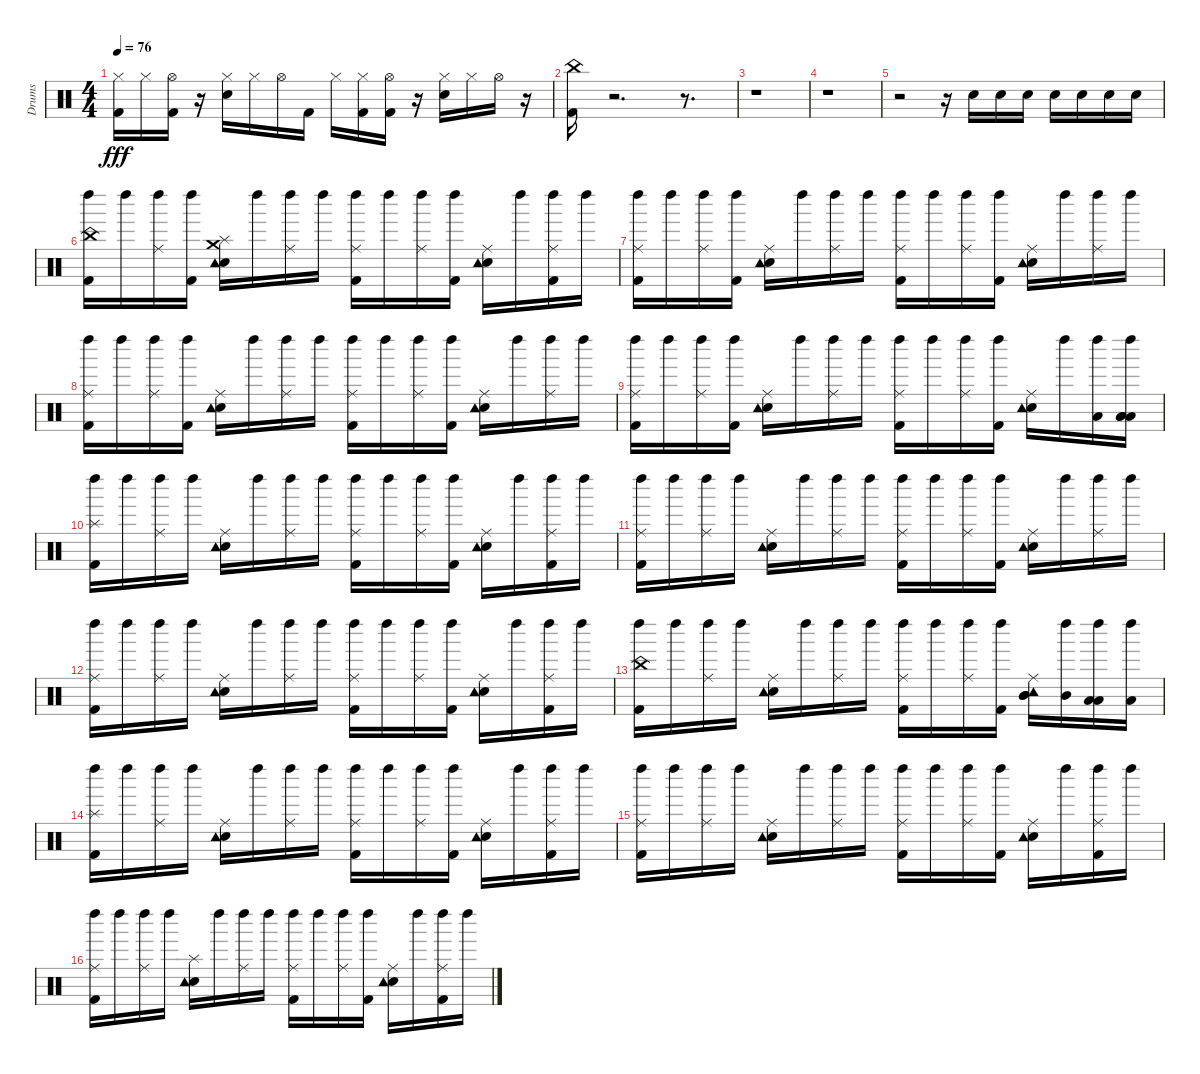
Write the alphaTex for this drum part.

\track ("Drums" "Drums") {instrument percussion}
\staff {score}
\articulation defaults
\ts (4 4)
\tempo 76
\clef neutral
\ks c
("Kick (hit) 2" "Hi-Hat (closed)").16{dy fff} "Hi-Hat (closed)".16 ("Kick (hit) 2" "Hi-Hat (open)").16 r.16 ("Electric Snare (hit)" "Hi-Hat (closed)").16 "Hi-Hat (closed)".16 "Hi-Hat (open)".16 "Kick (hit) 2".16 "Hi-Hat (closed)".16 ("Kick (hit) 2" "Hi-Hat (closed)").16 ("Kick (hit) 2" "Hi-Hat (open)").16 r.16 ("Electric Snare (hit)" "Hi-Hat (closed)").16 "Hi-Hat (closed)".16 "Hi-Hat (open)".16 r.16 |
("Kick (hit) 2" "China (hit)").16 r.2{d} r.8{d} |
r.1 |
r.1 |
r.2 r.16 "Electric Snare (hit)".16 "Electric Snare (hit)".16 "Electric Snare (hit)".16 "Electric Snare (hit)".16 "Electric Snare (hit)".16 "Electric Snare (hit)".16 "Electric Snare (hit)".16 |
("Kick (hit) 2" "China (hit)" "Left Maraca (hit)").16 "Left Maraca (hit)".16 ("Ride (middle)" "Left Maraca (hit)").16 ("Kick (hit) 2" "Left Maraca (hit)").16 ("Electric Snare (hit)" "Splash (hit)" "Crash medium (hit)" "Tambourine (hit)").16 "Left Maraca (hit)".16 ("Ride (middle)" "Left Maraca (hit)").16 "Left Maraca (hit)".16 ("Kick (hit) 2" "Ride (middle)" "Left Maraca (hit)").16 "Left Maraca (hit)".16 ("Ride (middle)" "Left Maraca (hit)").16 ("Kick (hit) 2" "Left Maraca (hit)").16 ("Electric Snare (hit)" "Ride (middle)" "Tambourine (hit)").16 "Left Maraca (hit)".16 ("Kick (hit) 2" "Ride (middle)" "Left Maraca (hit)").16 "Left Maraca (hit)".16 |
("Kick (hit) 2" "Ride (middle)" "Left Maraca (hit)").16 "Left Maraca (hit)".16 ("Ride (middle)" "Left Maraca (hit)").16 ("Kick (hit) 2" "Left Maraca (hit)").16 ("Electric Snare (hit)" "Ride (middle)" "Tambourine (hit)").16 "Left Maraca (hit)".16 ("Ride (middle)" "Left Maraca (hit)").16 "Left Maraca (hit)".16 ("Kick (hit) 2" "Ride (middle)" "Left Maraca (hit)").16 "Left Maraca (hit)".16 ("Ride (middle)" "Left Maraca (hit)").16 ("Kick (hit) 2" "Left Maraca (hit)").16 ("Electric Snare (hit)" "Ride (middle)" "Tambourine (hit)").16 "Left Maraca (hit)".16 ("Ride (middle)" "Left Maraca (hit)").16 "Left Maraca (hit)".16 |
("Kick (hit) 2" "Ride (middle)" "Left Maraca (hit)").16 "Left Maraca (hit)".16 ("Ride (middle)" "Left Maraca (hit)").16 ("Kick (hit) 2" "Left Maraca (hit)").16 ("Electric Snare (hit)" "Ride (middle)" "Tambourine (hit)").16 "Left Maraca (hit)".16 ("Ride (middle)" "Left Maraca (hit)").16 "Left Maraca (hit)".16 ("Kick (hit) 2" "Ride (middle)" "Left Maraca (hit)").16 "Left Maraca (hit)".16 ("Ride (middle)" "Left Maraca (hit)").16 ("Kick (hit) 2" "Left Maraca (hit)").16 ("Electric Snare (hit)" "Ride (middle)" "Tambourine (hit)").16 "Left Maraca (hit)".16 ("Ride (middle)" "Left Maraca (hit)").16 "Left Maraca (hit)".16 |
("Kick (hit) 2" "Ride (middle)" "Left Maraca (hit)").16 "Left Maraca (hit)".16 ("Ride (middle)" "Left Maraca (hit)").16 ("Kick (hit) 2" "Left Maraca (hit)").16 ("Electric Snare (hit)" "Ride (middle)" "Tambourine (hit)").16 "Left Maraca (hit)".16 ("Ride (middle)" "Left Maraca (hit)").16 "Left Maraca (hit)".16 ("Kick (hit) 2" "Ride (middle)" "Left Maraca (hit)").16 "Left Maraca (hit)".16 ("Ride (middle)" "Left Maraca (hit)").16 ("Kick (hit) 2" "Left Maraca (hit)").16 ("Electric Snare (hit)" "Ride (middle)" "Tambourine (hit)").16 "Left Maraca (hit)".16 ("Low Tom (hit)" "Left Maraca (hit)").16 ("Low Tom (hit)" "Low Tom (hit)" "Low Tom (hit)" "Left Maraca (hit)").16 |
("Kick (hit) 2" "Splash (hit)" "Left Maraca (hit)").16 "Left Maraca (hit)".16 ("Ride (middle)" "Left Maraca (hit)").16 "Left Maraca (hit)".16 ("Electric Snare (hit)" "Ride (middle)" "Tambourine (hit)").16 "Left Maraca (hit)".16 ("Ride (middle)" "Left Maraca (hit)").16 "Left Maraca (hit)".16 ("Kick (hit) 2" "Ride (middle)" "Left Maraca (hit)").16 "Left Maraca (hit)".16 ("Ride (middle)" "Left Maraca (hit)").16 ("Kick (hit) 2" "Left Maraca (hit)").16 ("Electric Snare (hit)" "Ride (middle)" "Tambourine (hit)").16 "Left Maraca (hit)".16 ("Kick (hit) 2" "Ride (middle)" "Left Maraca (hit)").16 "Left Maraca (hit)".16 |
("Kick (hit) 2" "Ride (middle)" "Left Maraca (hit)").16 "Left Maraca (hit)".16 ("Ride (middle)" "Left Maraca (hit)").16 "Left Maraca (hit)".16 ("Electric Snare (hit)" "Ride (middle)" "Tambourine (hit)").16 "Left Maraca (hit)".16 ("Ride (middle)" "Left Maraca (hit)").16 "Left Maraca (hit)".16 ("Kick (hit) 2" "Ride (middle)" "Left Maraca (hit)").16 "Left Maraca (hit)".16 ("Ride (middle)" "Left Maraca (hit)").16 ("Kick (hit) 2" "Left Maraca (hit)").16 ("Electric Snare (hit)" "Ride (middle)" "Tambourine (hit)").16 "Left Maraca (hit)".16 ("Ride (middle)" "Left Maraca (hit)").16 "Left Maraca (hit)".16 |
("Kick (hit) 2" "Ride (middle)" "Left Maraca (hit)").16 "Left Maraca (hit)".16 ("Ride (middle)" "Left Maraca (hit)").16 "Left Maraca (hit)".16 ("Electric Snare (hit)" "Ride (middle)" "Tambourine (hit)").16 "Left Maraca (hit)".16 ("Ride (middle)" "Left Maraca (hit)").16 "Left Maraca (hit)".16 ("Kick (hit) 2" "Ride (middle)" "Left Maraca (hit)").16 "Left Maraca (hit)".16 ("Ride (middle)" "Left Maraca (hit)").16 ("Kick (hit) 2" "Left Maraca (hit)").16 ("Electric Snare (hit)" "Ride (middle)" "Tambourine (hit)").16 "Left Maraca (hit)".16 ("Kick (hit) 2" "Ride (middle)" "Left Maraca (hit)").16 "Left Maraca (hit)".16 |
("Kick (hit) 2" "China (hit)" "Left Maraca (hit)").16 "Left Maraca (hit)".16 ("Ride (middle)" "Left Maraca (hit)").16 "Left Maraca (hit)".16 ("Electric Snare (hit)" "Ride (middle)" "Tambourine (hit)").16 "Left Maraca (hit)".16 ("Ride (middle)" "Left Maraca (hit)").16 "Left Maraca (hit)".16 ("Kick (hit) 2" "Ride (middle)" "Left Maraca (hit)").16 "Left Maraca (hit)".16 ("Ride (middle)" "Left Maraca (hit)").16 ("Kick (hit) 2" "Left Maraca (hit)").16 ("Mid Tom (hit)" "Mid Tom (hit)" "Ride (middle)" "Tambourine (hit)").16 ("Mid Tom (hit)" "Left Maraca (hit)").16 ("Low Tom (hit)" "Low Tom (hit)" "Left Maraca (hit)").16 ("Low Tom (hit)" "Left Maraca (hit)").16 |
("Kick (hit) 2" "Splash (hit)" "Left Maraca (hit)").16 "Left Maraca (hit)".16 ("Ride (middle)" "Left Maraca (hit)").16 "Left Maraca (hit)".16 ("Electric Snare (hit)" "Ride (middle)" "Tambourine (hit)").16 "Left Maraca (hit)".16 ("Ride (middle)" "Left Maraca (hit)").16 "Left Maraca (hit)".16 ("Kick (hit) 2" "Ride (middle)" "Left Maraca (hit)").16 "Left Maraca (hit)".16 ("Ride (middle)" "Left Maraca (hit)").16 ("Kick (hit) 2" "Left Maraca (hit)").16 ("Electric Snare (hit)" "Ride (middle)" "Tambourine (hit)").16 "Left Maraca (hit)".16 ("Kick (hit) 2" "Ride (middle)" "Left Maraca (hit)").16 "Left Maraca (hit)".16 |
("Kick (hit) 2" "Ride (middle)" "Left Maraca (hit)").16 "Left Maraca (hit)".16 ("Ride (middle)" "Left Maraca (hit)").16 "Left Maraca (hit)".16 ("Electric Snare (hit)" "Ride (middle)" "Tambourine (hit)").16 "Left Maraca (hit)".16 ("Ride (middle)" "Left Maraca (hit)").16 "Left Maraca (hit)".16 ("Kick (hit) 2" "Ride (middle)" "Left Maraca (hit)").16 "Left Maraca (hit)".16 ("Ride (middle)" "Left Maraca (hit)").16 ("Kick (hit) 2" "Left Maraca (hit)").16 ("Electric Snare (hit)" "Ride (middle)" "Tambourine (hit)").16 "Left Maraca (hit)".16 ("Kick (hit) 2" "Ride (middle)" "Left Maraca (hit)").16 "Left Maraca (hit)".16 |
("Kick (hit) 2" "Ride (middle)" "Left Maraca (hit)").16 "Left Maraca (hit)".16 ("Ride (middle)" "Left Maraca (hit)").16 "Left Maraca (hit)".16 ("Electric Snare (hit)" "Splash (hit)" "Tambourine (hit)").16 "Left Maraca (hit)".16 ("Ride (middle)" "Left Maraca (hit)").16 "Left Maraca (hit)".16 ("Kick (hit) 2" "Ride (middle)" "Left Maraca (hit)").16 "Left Maraca (hit)".16 ("Ride (middle)" "Left Maraca (hit)").16 ("Kick (hit) 2" "Left Maraca (hit)").16 ("Electric Snare (hit)" "Ride (middle)" "Tambourine (hit)").16 "Left Maraca (hit)".16 ("Kick (hit) 2" "Ride (middle)" "Left Maraca (hit)").16 "Left Maraca (hit)".16
